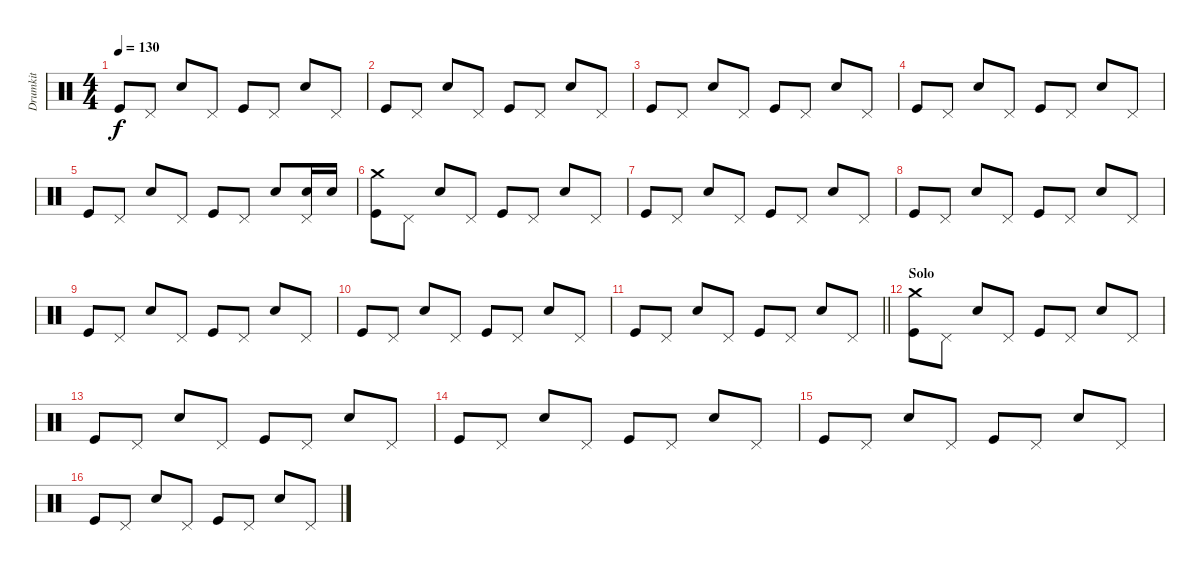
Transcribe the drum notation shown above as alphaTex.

\track ("Drumkit" "Drumkit") {instrument percussion}
\staff {score}
\articulation defaults
\ts (4 4)
\tempo 130
\clef neutral
\ks c "Kick (hit)".8{dy f} "Pedal Hi-Hat (hit)".8 "Snare (hit) 2".8 "Pedal Hi-Hat (hit)".8 "Kick (hit)".8 "Pedal Hi-Hat (hit)".8 "Snare (hit) 2".8 "Pedal Hi-Hat (hit)".8
|
"Kick (hit)".8 "Pedal Hi-Hat (hit)".8 "Snare (hit) 2".8 "Pedal Hi-Hat (hit)".8 "Kick (hit)".8 "Pedal Hi-Hat (hit)".8 "Snare (hit) 2".8 "Pedal Hi-Hat (hit)".8 |
"Kick (hit)".8 "Pedal Hi-Hat (hit)".8 "Snare (hit) 2".8 "Pedal Hi-Hat (hit)".8 "Kick (hit)".8 "Pedal Hi-Hat (hit)".8 "Snare (hit) 2".8 "Pedal Hi-Hat (hit)".8 |
"Kick (hit)".8 "Pedal Hi-Hat (hit)".8 "Snare (hit) 2".8 "Pedal Hi-Hat (hit)".8 "Kick (hit)".8 "Pedal Hi-Hat (hit)".8 "Snare (hit) 2".8 "Pedal Hi-Hat (hit)".8 |
"Kick (hit)".8 "Pedal Hi-Hat (hit)".8 "Snare (hit) 2".8 "Pedal Hi-Hat (hit)".8 "Kick (hit)".8 "Pedal Hi-Hat (hit)".8 "Snare (hit) 2".8 ("Snare (hit) 2" "Pedal Hi-Hat (hit)").16 "Snare (hit) 2".16 |
("Kick (hit)" "Crash medium (hit)").8 "Pedal Hi-Hat (hit)".8 "Snare (hit) 2".8 "Pedal Hi-Hat (hit)".8 "Kick (hit)".8 "Pedal Hi-Hat (hit)".8 "Snare (hit) 2".8 "Pedal Hi-Hat (hit)".8 |
"Kick (hit)".8 "Pedal Hi-Hat (hit)".8 "Snare (hit) 2".8 "Pedal Hi-Hat (hit)".8 "Kick (hit)".8 "Pedal Hi-Hat (hit)".8 "Snare (hit) 2".8 "Pedal Hi-Hat (hit)".8 |
"Kick (hit)".8 "Pedal Hi-Hat (hit)".8 "Snare (hit) 2".8 "Pedal Hi-Hat (hit)".8 "Kick (hit)".8 "Pedal Hi-Hat (hit)".8 "Snare (hit) 2".8 "Pedal Hi-Hat (hit)".8 |
"Kick (hit)".8 "Pedal Hi-Hat (hit)".8 "Snare (hit) 2".8 "Pedal Hi-Hat (hit)".8 "Kick (hit)".8 "Pedal Hi-Hat (hit)".8 "Snare (hit) 2".8 "Pedal Hi-Hat (hit)".8 |
"Kick (hit)".8 "Pedal Hi-Hat (hit)".8 "Snare (hit) 2".8 "Pedal Hi-Hat (hit)".8 "Kick (hit)".8 "Pedal Hi-Hat (hit)".8 "Snare (hit) 2".8 "Pedal Hi-Hat (hit)".8 |
\barLineRight lightlight "Kick (hit)".8 "Pedal Hi-Hat (hit)".8 "Snare (hit) 2".8 "Pedal Hi-Hat (hit)".8 "Kick (hit)".8 "Pedal Hi-Hat (hit)".8 "Snare (hit) 2".8 "Pedal Hi-Hat (hit)".8
|
\section ("" "Solo")
("Kick (hit)" "Crash medium (hit)").8 "Pedal Hi-Hat (hit)".8 "Snare (hit) 2".8 "Pedal Hi-Hat (hit)".8 "Kick (hit)".8 "Pedal Hi-Hat (hit)".8 "Snare (hit) 2".8 "Pedal Hi-Hat (hit)".8 |
"Kick (hit)".8 "Pedal Hi-Hat (hit)".8 "Snare (hit) 2".8 "Pedal Hi-Hat (hit)".8 "Kick (hit)".8 "Pedal Hi-Hat (hit)".8 "Snare (hit) 2".8 "Pedal Hi-Hat (hit)".8 |
"Kick (hit)".8 "Pedal Hi-Hat (hit)".8 "Snare (hit) 2".8 "Pedal Hi-Hat (hit)".8 "Kick (hit)".8 "Pedal Hi-Hat (hit)".8 "Snare (hit) 2".8 "Pedal Hi-Hat (hit)".8 |
"Kick (hit)".8 "Pedal Hi-Hat (hit)".8 "Snare (hit) 2".8 "Pedal Hi-Hat (hit)".8 "Kick (hit)".8 "Pedal Hi-Hat (hit)".8 "Snare (hit) 2".8 "Pedal Hi-Hat (hit)".8 |
"Kick (hit)".8 "Pedal Hi-Hat (hit)".8 "Snare (hit) 2".8 "Pedal Hi-Hat (hit)".8 "Kick (hit)".8 "Pedal Hi-Hat (hit)".8 "Snare (hit) 2".8 "Pedal Hi-Hat (hit)".8
